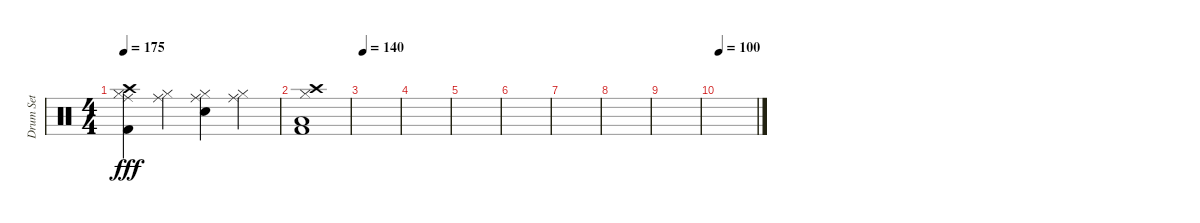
\track ("Drum Set" "Drum Set") {instrument percussion}
\staff {score}
\articulation defaults
\ts (4 4)
\tempo 175
\clef neutral
\ks c
("Kick (hit) 2" "Hi-Hat (closed)" "Ride (middle)" "Crash high (hit)").4{dy fff} ("Ride (middle)" "Hi-Hat (closed)").4 ("Electric Snare (hit)" "Ride (middle)" "Hi-Hat (closed)").4 ("Ride (middle)" "Hi-Hat (closed)").4 |
("Kick (hit) 2" "Low Floor Tom (hit)" "Hi-Hat (closed)" "Crash high (hit)").1 |
\tempo 140
|
|
|
|
|
|
|
\tempo 100
